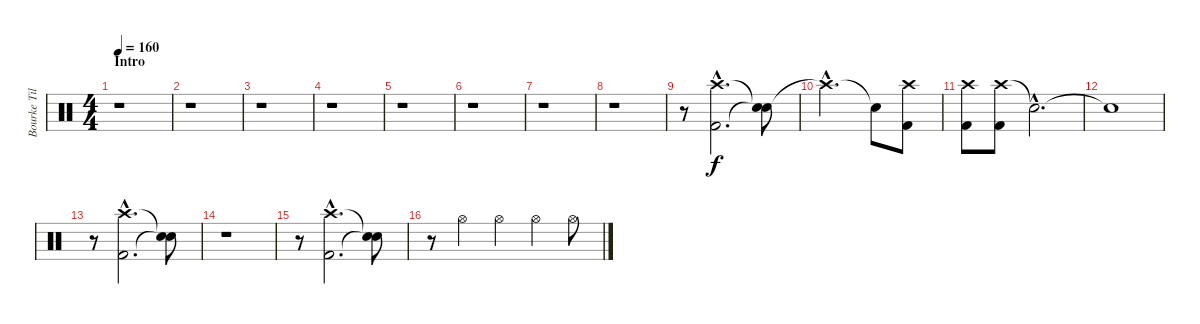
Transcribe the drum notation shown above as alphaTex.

\track ("Bourke Tillman" "Bourke Til") {instrument percussion}
\staff {score}
\articulation defaults
\ts (4 4)
\section ("" "Intro")
\tempo 160
\clef neutral
\ks c
r.1{dy f} |
r.1 |
r.1 |
r.1 |
r.1 |
r.1 |
r.1 |
r.1 |
r.8 ("Crash high (hit)"{hac} "Kick (hit) 2"{hac}).2{d} ("Snare (hit)"{t} "Snare (hit)"{t}).8 |
"Crash high (hit)"{hac t}.2{d} "Snare (hit)"{t}.8 ("Crash high (hit)" "Kick (hit) 2").8 |
("Crash high (hit)" "Kick (hit) 2").8 ("Crash high (hit)" "Kick (hit) 2").8 "Snare (hit)"{hac t}.2{d} |
"Snare (hit)"{t}.1 |
r.8 ("Crash high (hit)"{hac} "Kick (hit) 2"{hac}).2{d} ("Snare (hit)"{t} "Snare (hit)"{t}).8 |
r.1 |
r.8 ("Crash high (hit)"{hac} "Kick (hit) 2"{hac}).2{d} ("Snare (hit)"{t} "Snare (hit)"{t}).8 |
r.8 "Hi-Hat (open)".4 "Hi-Hat (open)".4 "Hi-Hat (open)".4 "Hi-Hat (open)".8
